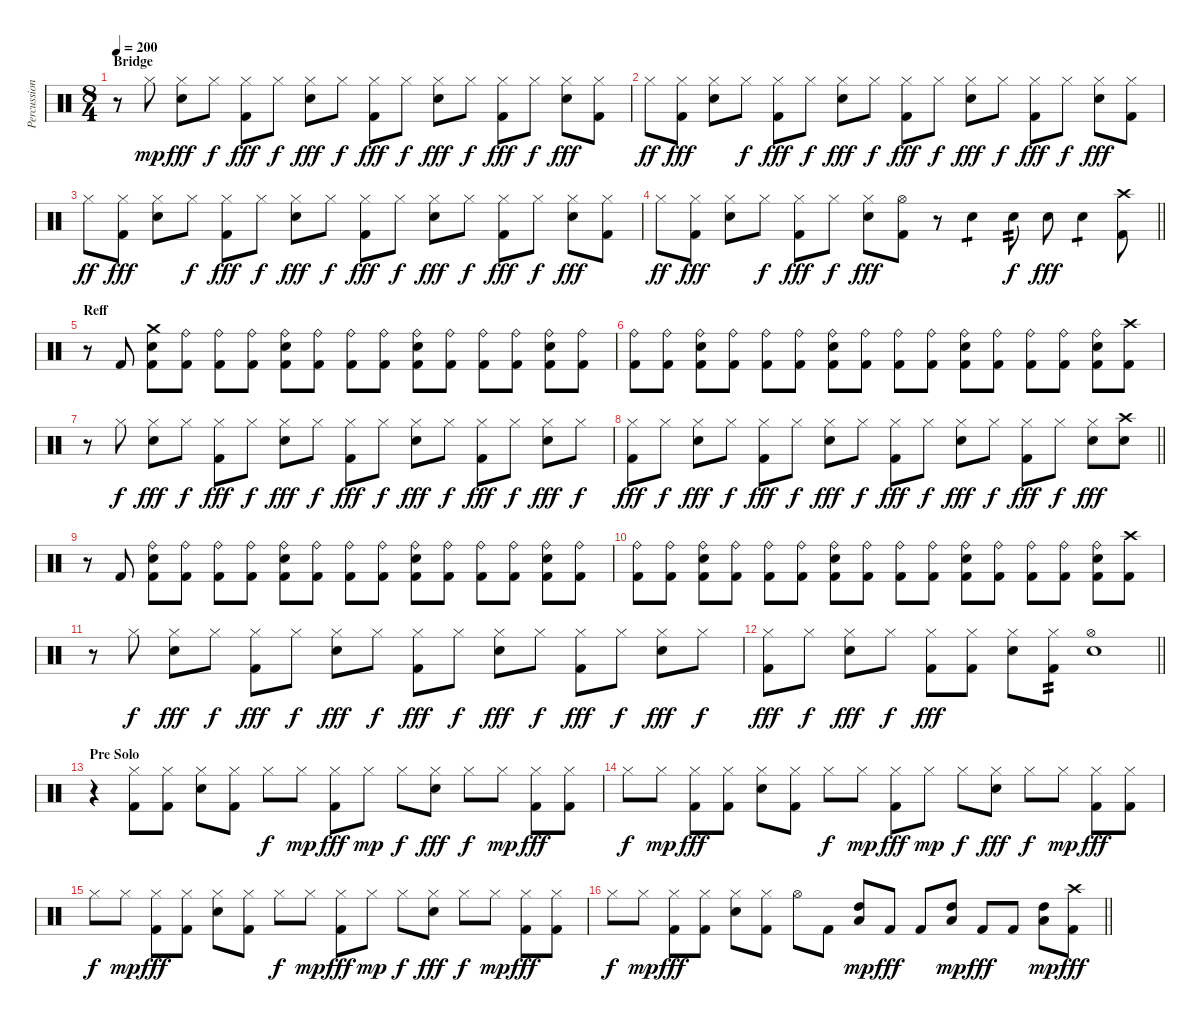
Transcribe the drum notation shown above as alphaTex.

\track ("Percussion" "Percussion") {instrument percussion}
\staff {score}
\articulation defaults
\ts (8 4)
\section ("" "Bridge")
\tempo 200
\clef neutral
\ks c
r.8{dy fff} "Hi-Hat (closed)".8{dy mp} ("Hi-Hat (closed)" "Electric Snare (hit)").8{dy fff} "Hi-Hat (closed)".8{dy f} ("Hi-Hat (closed)" "Kick (hit) 2").8{dy fff} "Hi-Hat (closed)".8{dy f} ("Hi-Hat (closed)" "Electric Snare (hit)").8{dy fff} "Hi-Hat (closed)".8{dy f} ("Hi-Hat (closed)" "Kick (hit) 2").8{dy fff} "Hi-Hat (closed)".8{dy f} ("Hi-Hat (closed)" "Electric Snare (hit)").8{dy fff} "Hi-Hat (closed)".8{dy f} ("Hi-Hat (closed)" "Kick (hit) 2").8{dy fff} "Hi-Hat (closed)".8{dy f} ("Hi-Hat (closed)" "Electric Snare (hit)").8{dy fff} ("Hi-Hat (closed)" "Kick (hit) 2").8 |
"Hi-Hat (closed)".8{dy ff} ("Hi-Hat (closed)" "Kick (hit) 2").8{dy fff} ("Hi-Hat (closed)" "Electric Snare (hit)").8 "Hi-Hat (closed)".8{dy f} ("Hi-Hat (closed)" "Kick (hit) 2").8{dy fff} "Hi-Hat (closed)".8{dy f} ("Hi-Hat (closed)" "Electric Snare (hit)").8{dy fff} "Hi-Hat (closed)".8{dy f} ("Hi-Hat (closed)" "Kick (hit) 2").8{dy fff} "Hi-Hat (closed)".8{dy f} ("Hi-Hat (closed)" "Electric Snare (hit)").8{dy fff} "Hi-Hat (closed)".8{dy f} ("Hi-Hat (closed)" "Kick (hit) 2").8{dy fff} "Hi-Hat (closed)".8{dy f} ("Hi-Hat (closed)" "Electric Snare (hit)").8{dy fff} ("Hi-Hat (closed)" "Kick (hit) 2").8 |
"Hi-Hat (closed)".8{dy ff} ("Hi-Hat (closed)" "Kick (hit) 2").8{dy fff} ("Hi-Hat (closed)" "Electric Snare (hit)").8 "Hi-Hat (closed)".8{dy f} ("Hi-Hat (closed)" "Kick (hit) 2").8{dy fff} "Hi-Hat (closed)".8{dy f} ("Hi-Hat (closed)" "Electric Snare (hit)").8{dy fff} "Hi-Hat (closed)".8{dy f} ("Hi-Hat (closed)" "Kick (hit) 2").8{dy fff} "Hi-Hat (closed)".8{dy f} ("Hi-Hat (closed)" "Electric Snare (hit)").8{dy fff} "Hi-Hat (closed)".8{dy f} ("Hi-Hat (closed)" "Kick (hit) 2").8{dy fff} "Hi-Hat (closed)".8{dy f} ("Hi-Hat (closed)" "Electric Snare (hit)").8{dy fff} ("Hi-Hat (closed)" "Kick (hit) 2").8 |
\barLineRight lightlight "Hi-Hat (closed)".8{dy ff}
("Hi-Hat (closed)" "Kick (hit) 2").8{dy fff} ("Hi-Hat (closed)" "Electric Snare (hit)").8 "Hi-Hat (closed)".8{dy f} ("Hi-Hat (closed)" "Kick (hit) 2").8{dy fff} "Hi-Hat (closed)".8{dy f} ("Hi-Hat (closed)" "Electric Snare (hit)").8{dy fff} ("Hi-Hat (open)" "Kick (hit) 2").8 r.8 "Electric Snare (hit)".4{tp 1} "Electric Snare (hit)".8{tp 2 dy f} "Electric Snare (hit)".8{dy fff} "Electric Snare (hit)".4{tp 1} ("Crash high (hit)" "Kick (hit) 2").8 |
\section ("" "Reff")
r.8 "Kick (hit) 2".8 ("Crash medium (hit)" "Electric Snare (hit)" "Kick (hit) 2").8 ("Ride (bell)" "Kick (hit) 2").8 ("Ride (bell)" "Kick (hit) 2").8 ("Ride (bell)" "Kick (hit) 2").8 ("Ride (bell)" "Electric Snare (hit)" "Kick (hit) 2").8 ("Ride (bell)" "Kick (hit) 2").8 ("Ride (bell)" "Kick (hit) 2").8 ("Ride (bell)" "Kick (hit) 2").8 ("Ride (bell)" "Electric Snare (hit)" "Kick (hit) 2").8 ("Ride (bell)" "Kick (hit) 2").8 ("Ride (bell)" "Kick (hit) 2").8 ("Ride (bell)" "Kick (hit) 2").8 ("Ride (bell)" "Electric Snare (hit)" "Kick (hit) 2").8 ("Ride (bell)" "Kick (hit) 2").8 |
("Ride (bell)" "Kick (hit) 2").8 ("Ride (bell)" "Kick (hit) 2").8 ("Ride (bell)" "Electric Snare (hit)" "Kick (hit) 2").8 ("Ride (bell)" "Kick (hit) 2").8 ("Ride (bell)" "Kick (hit) 2").8 ("Ride (bell)" "Kick (hit) 2").8 ("Ride (bell)" "Electric Snare (hit)" "Kick (hit) 2").8 ("Ride (bell)" "Kick (hit) 2").8 ("Ride (bell)" "Kick (hit) 2").8 ("Ride (bell)" "Kick (hit) 2").8 ("Ride (bell)" "Electric Snare (hit)" "Kick (hit) 2").8 ("Ride (bell)" "Kick (hit) 2").8 ("Ride (bell)" "Kick (hit) 2").8 ("Ride (bell)" "Kick (hit) 2").8 ("Ride (bell)" "Electric Snare (hit)" "Kick (hit) 2").8 ("Crash high (hit)" "Kick (hit) 2").8 |
r.8 "Hi-Hat (closed)".8{dy f} ("Hi-Hat (closed)" "Electric Snare (hit)").8{dy fff} "Hi-Hat (closed)".8{dy f} ("Hi-Hat (closed)" "Kick (hit) 2").8{dy fff} "Hi-Hat (closed)".8{dy f} ("Hi-Hat (closed)" "Electric Snare (hit)").8{dy fff} "Hi-Hat (closed)".8{dy f} ("Hi-Hat (closed)" "Kick (hit) 2").8{dy fff} "Hi-Hat (closed)".8{dy f} ("Hi-Hat (closed)" "Electric Snare (hit)").8{dy fff} "Hi-Hat (closed)".8{dy f} ("Hi-Hat (closed)" "Kick (hit) 2").8{dy fff} "Hi-Hat (closed)".8{dy f} ("Hi-Hat (closed)" "Electric Snare (hit)").8{dy fff} "Hi-Hat (closed)".8{dy f} |
\barLineRight lightlight
("Hi-Hat (closed)" "Kick (hit) 2").8{dy fff} "Hi-Hat (closed)".8{dy f} ("Hi-Hat (closed)" "Electric Snare (hit)").8{dy fff} "Hi-Hat (closed)".8{dy f} ("Hi-Hat (closed)" "Kick (hit) 2").8{dy fff} "Hi-Hat (closed)".8{dy f} ("Hi-Hat (closed)" "Electric Snare (hit)").8{dy fff} "Hi-Hat (closed)".8{dy f} ("Hi-Hat (closed)" "Kick (hit) 2").8{dy fff} "Hi-Hat (closed)".8{dy f} ("Hi-Hat (closed)" "Electric Snare (hit)").8{dy fff} "Hi-Hat (closed)".8{dy f} ("Hi-Hat (closed)" "Kick (hit) 2").8{dy fff} "Hi-Hat (closed)".8{dy f} ("Hi-Hat (closed)" "Electric Snare (hit)").8{dy fff} ("Crash high (hit)" "Electric Snare (hit)").8 |
r.8 "Kick (hit) 2".8 ("Ride (bell)" "Electric Snare (hit)" "Kick (hit) 2").8 ("Ride (bell)" "Kick (hit) 2").8 ("Ride (bell)" "Kick (hit) 2").8 ("Ride (bell)" "Kick (hit) 2").8 ("Ride (bell)" "Electric Snare (hit)" "Kick (hit) 2").8 ("Ride (bell)" "Kick (hit) 2").8 ("Ride (bell)" "Kick (hit) 2").8 ("Ride (bell)" "Kick (hit) 2").8 ("Ride (bell)" "Electric Snare (hit)" "Kick (hit) 2").8 ("Ride (bell)" "Kick (hit) 2").8 ("Ride (bell)" "Kick (hit) 2").8 ("Ride (bell)" "Kick (hit) 2").8 ("Ride (bell)" "Electric Snare (hit)" "Kick (hit) 2").8 ("Ride (bell)" "Kick (hit) 2").8 |
("Ride (bell)" "Kick (hit) 2").8 ("Ride (bell)" "Kick (hit) 2").8 ("Ride (bell)" "Electric Snare (hit)" "Kick (hit) 2").8 ("Ride (bell)" "Kick (hit) 2").8 ("Ride (bell)" "Kick (hit) 2").8 ("Ride (bell)" "Kick (hit) 2").8 ("Ride (bell)" "Electric Snare (hit)" "Kick (hit) 2").8 ("Ride (bell)" "Kick (hit) 2").8 ("Ride (bell)" "Kick (hit) 2").8 ("Ride (bell)" "Kick (hit) 2").8 ("Ride (bell)" "Electric Snare (hit)" "Kick (hit) 2").8 ("Ride (bell)" "Kick (hit) 2").8 ("Ride (bell)" "Kick (hit) 2").8 ("Ride (bell)" "Kick (hit) 2").8 ("Ride (bell)" "Electric Snare (hit)" "Kick (hit) 2").8 ("Crash high (hit)" "Kick (hit) 2").8 |
r.8 "Hi-Hat (closed)".8{dy f} ("Hi-Hat (closed)" "Electric Snare (hit)").8{dy fff} "Hi-Hat (closed)".8{dy f} ("Hi-Hat (closed)" "Kick (hit) 2").8{dy fff} "Hi-Hat (closed)".8{dy f} ("Hi-Hat (closed)" "Electric Snare (hit)").8{dy fff} "Hi-Hat (closed)".8{dy f} ("Hi-Hat (closed)" "Kick (hit) 2").8{dy fff} "Hi-Hat (closed)".8{dy f} ("Hi-Hat (closed)" "Electric Snare (hit)").8{dy fff} "Hi-Hat (closed)".8{dy f} ("Hi-Hat (closed)" "Kick (hit) 2").8{dy fff} "Hi-Hat (closed)".8{dy f} ("Hi-Hat (closed)" "Electric Snare (hit)").8{dy fff} "Hi-Hat (closed)".8{dy f} |
\barLineRight lightlight
("Hi-Hat (closed)" "Kick (hit) 2").8{dy fff} "Hi-Hat (closed)".8{dy f} ("Hi-Hat (closed)" "Electric Snare (hit)").8{dy fff} "Hi-Hat (closed)".8{dy f} ("Hi-Hat (closed)" "Kick (hit) 2").8{dy fff} ("Hi-Hat (closed)" "Kick (hit) 2").8 ("Hi-Hat (closed)" "Electric Snare (hit)").8 ("Hi-Hat (closed)" "Kick (hit) 2").8{tp 2} ("Hi-Hat (open)" "Electric Snare (hit)").1 |
\section ("" "Pre Solo")
r.4 ("Hi-Hat (closed)" "Kick (hit) 2").8 ("Hi-Hat (closed)" "Kick (hit) 2").8 ("Hi-Hat (closed)" "Electric Snare (hit)").8 ("Hi-Hat (closed)" "Kick (hit) 2").8 "Hi-Hat (closed)".8{dy f} "Hi-Hat (closed)".8{dy mp} ("Hi-Hat (closed)" "Kick (hit) 2").8{dy fff} "Hi-Hat (closed)".8{dy mp} "Hi-Hat (closed)".8{dy f} ("Hi-Hat (closed)" "Electric Snare (hit)").8{dy fff} "Hi-Hat (closed)".8{dy f} "Hi-Hat (closed)".8{dy mp} ("Hi-Hat (closed)" "Kick (hit) 2").8{dy fff} ("Hi-Hat (closed)" "Kick (hit) 2").8 |
"Hi-Hat (closed)".8{dy f} "Hi-Hat (closed)".8{dy mp} ("Hi-Hat (closed)" "Kick (hit) 2").8{dy fff} ("Hi-Hat (closed)" "Kick (hit) 2").8 ("Hi-Hat (closed)" "Electric Snare (hit)").8 ("Hi-Hat (closed)" "Kick (hit) 2").8 "Hi-Hat (closed)".8{dy f} "Hi-Hat (closed)".8{dy mp} ("Hi-Hat (closed)" "Kick (hit) 2").8{dy fff} "Hi-Hat (closed)".8{dy mp} "Hi-Hat (closed)".8{dy f} ("Hi-Hat (closed)" "Electric Snare (hit)").8{dy fff} "Hi-Hat (closed)".8{dy f} "Hi-Hat (closed)".8{dy mp} ("Hi-Hat (closed)" "Kick (hit) 2").8{dy fff} ("Hi-Hat (closed)" "Kick (hit) 2").8 |
"Hi-Hat (closed)".8{dy f} "Hi-Hat (closed)".8{dy mp} ("Hi-Hat (closed)" "Kick (hit) 2").8{dy fff} ("Hi-Hat (closed)" "Kick (hit) 2").8 ("Hi-Hat (closed)" "Electric Snare (hit)").8 ("Hi-Hat (closed)" "Kick (hit) 2").8 "Hi-Hat (closed)".8{dy f} "Hi-Hat (closed)".8{dy mp} ("Hi-Hat (closed)" "Kick (hit) 2").8{dy fff} "Hi-Hat (closed)".8{dy mp} "Hi-Hat (closed)".8{dy f} ("Hi-Hat (closed)" "Electric Snare (hit)").8{dy fff} "Hi-Hat (closed)".8{dy f} "Hi-Hat (closed)".8{dy mp} ("Hi-Hat (closed)" "Kick (hit) 2").8{dy fff} ("Hi-Hat (closed)" "Kick (hit) 2").8 |
\barLineRight lightlight "Hi-Hat (closed)".8{dy f} "Hi-Hat (closed)".8{dy mp}
("Hi-Hat (closed)" "Kick (hit) 2").8{dy fff} ("Hi-Hat (closed)" "Kick (hit) 2").8 ("Hi-Hat (closed)" "Electric Snare (hit)").8 ("Hi-Hat (closed)" "Kick (hit) 2").8 "Hi-Hat (open)".8 "Kick (hit) 2".8 ("High Tom (hit)" "Low Tom (hit)").8{bd 480 dy mp} "Kick (hit) 2".8{dy fff} "Kick (hit) 2".8 ("High Tom (hit)" "Low Tom (hit)").8{bd 240 dy mp} "Kick (hit) 2".8{dy fff} "Kick (hit) 2".8 ("High Tom (hit)" "Low Tom (hit)").8{bd 120 dy mp} ("Crash high (hit)" "Kick (hit) 2").8{dy fff}
